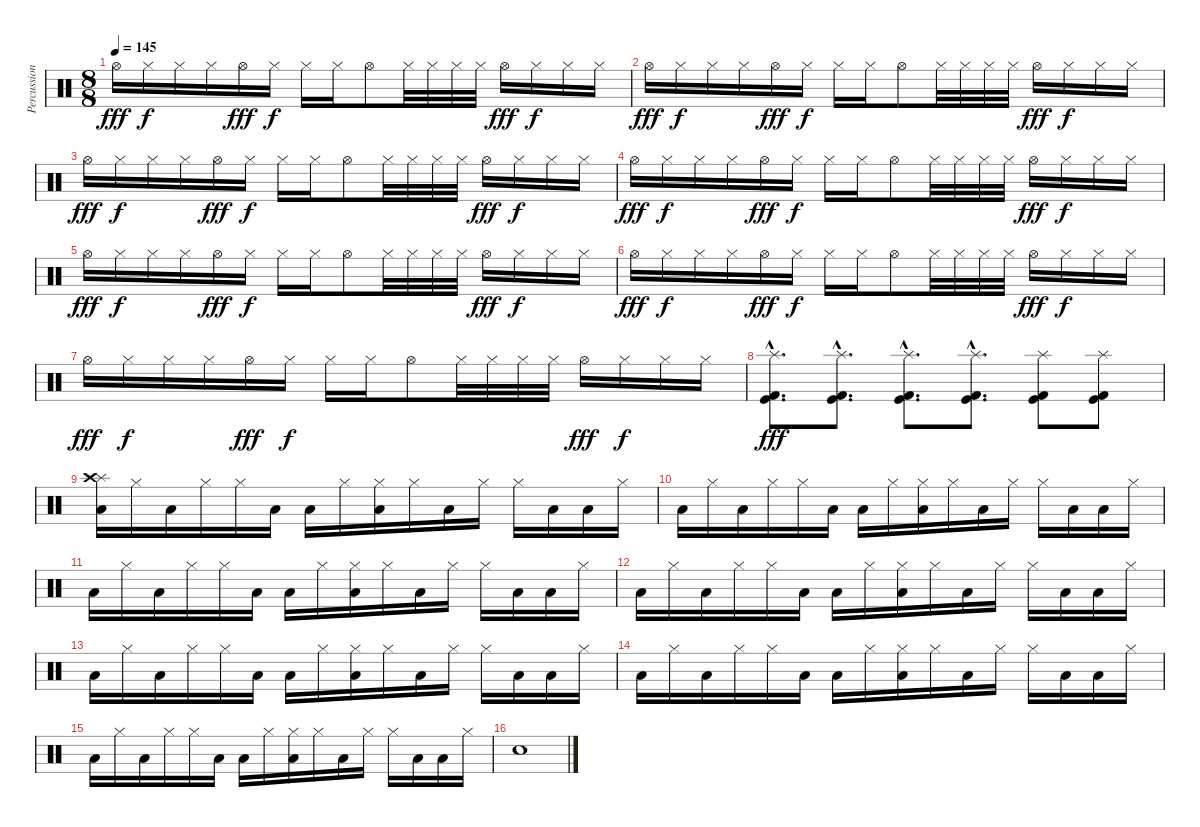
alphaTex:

\track ("Percussion" "Percussion") {instrument percussion}
\staff {score}
\articulation defaults
\ts (8 8)
\tempo 145
\clef neutral
\ks c "Hi-Hat (open)".16{dy fff} "Hi-Hat (closed)".16{dy f} "Hi-Hat (closed)".16 "Hi-Hat (closed)".16 "Hi-Hat (open)".16{dy fff} "Hi-Hat (closed)".16{dy f} "Hi-Hat (closed)".16 "Hi-Hat (closed)".16 "Hi-Hat (open)".8 "Hi-Hat (closed)".32 "Hi-Hat (closed)".32 "Hi-Hat (closed)".32 "Hi-Hat (closed)".32 "Hi-Hat (open)".16{dy fff} "Hi-Hat (closed)".16{dy f} "Hi-Hat (closed)".16 "Hi-Hat (closed)".16
|
"Hi-Hat (open)".16{dy fff} "Hi-Hat (closed)".16{dy f} "Hi-Hat (closed)".16 "Hi-Hat (closed)".16 "Hi-Hat (open)".16{dy fff} "Hi-Hat (closed)".16{dy f} "Hi-Hat (closed)".16 "Hi-Hat (closed)".16 "Hi-Hat (open)".8 "Hi-Hat (closed)".32 "Hi-Hat (closed)".32 "Hi-Hat (closed)".32 "Hi-Hat (closed)".32 "Hi-Hat (open)".16{dy fff} "Hi-Hat (closed)".16{dy f} "Hi-Hat (closed)".16 "Hi-Hat (closed)".16 |
"Hi-Hat (open)".16{dy fff} "Hi-Hat (closed)".16{dy f} "Hi-Hat (closed)".16 "Hi-Hat (closed)".16 "Hi-Hat (open)".16{dy fff} "Hi-Hat (closed)".16{dy f} "Hi-Hat (closed)".16 "Hi-Hat (closed)".16 "Hi-Hat (open)".8 "Hi-Hat (closed)".32 "Hi-Hat (closed)".32 "Hi-Hat (closed)".32 "Hi-Hat (closed)".32 "Hi-Hat (open)".16{dy fff} "Hi-Hat (closed)".16{dy f} "Hi-Hat (closed)".16 "Hi-Hat (closed)".16 |
"Hi-Hat (open)".16{dy fff} "Hi-Hat (closed)".16{dy f} "Hi-Hat (closed)".16 "Hi-Hat (closed)".16 "Hi-Hat (open)".16{dy fff} "Hi-Hat (closed)".16{dy f} "Hi-Hat (closed)".16 "Hi-Hat (closed)".16 "Hi-Hat (open)".8 "Hi-Hat (closed)".32 "Hi-Hat (closed)".32 "Hi-Hat (closed)".32 "Hi-Hat (closed)".32 "Hi-Hat (open)".16{dy fff} "Hi-Hat (closed)".16{dy f} "Hi-Hat (closed)".16 "Hi-Hat (closed)".16 |
"Hi-Hat (open)".16{dy fff} "Hi-Hat (closed)".16{dy f} "Hi-Hat (closed)".16 "Hi-Hat (closed)".16 "Hi-Hat (open)".16{dy fff} "Hi-Hat (closed)".16{dy f} "Hi-Hat (closed)".16 "Hi-Hat (closed)".16 "Hi-Hat (open)".8 "Hi-Hat (closed)".32 "Hi-Hat (closed)".32 "Hi-Hat (closed)".32 "Hi-Hat (closed)".32 "Hi-Hat (open)".16{dy fff} "Hi-Hat (closed)".16{dy f} "Hi-Hat (closed)".16 "Hi-Hat (closed)".16 |
"Hi-Hat (open)".16{dy fff} "Hi-Hat (closed)".16{dy f} "Hi-Hat (closed)".16 "Hi-Hat (closed)".16 "Hi-Hat (open)".16{dy fff} "Hi-Hat (closed)".16{dy f} "Hi-Hat (closed)".16 "Hi-Hat (closed)".16 "Hi-Hat (open)".8 "Hi-Hat (closed)".32 "Hi-Hat (closed)".32 "Hi-Hat (closed)".32 "Hi-Hat (closed)".32 "Hi-Hat (open)".16{dy fff} "Hi-Hat (closed)".16{dy f} "Hi-Hat (closed)".16 "Hi-Hat (closed)".16 |
"Hi-Hat (open)".16{dy fff} "Hi-Hat (closed)".16{dy f} "Hi-Hat (closed)".16 "Hi-Hat (closed)".16 "Hi-Hat (open)".16{dy fff} "Hi-Hat (closed)".16{dy f} "Hi-Hat (closed)".16 "Hi-Hat (closed)".16 "Hi-Hat (open)".8 "Hi-Hat (closed)".32 "Hi-Hat (closed)".32 "Hi-Hat (closed)".32 "Hi-Hat (closed)".32 "Hi-Hat (open)".16{dy fff} "Hi-Hat (closed)".16{dy f} "Hi-Hat (closed)".16 "Hi-Hat (closed)".16 |
("Splash (hit)"{hac} "Kick (hit)"{hac} "Kick (hit) 2"{hac}).8{d dy fff} ("Splash (hit)"{hac} "Kick (hit)"{hac} "Kick (hit) 2"{hac}).8{d} ("Splash (hit)"{hac} "Kick (hit)"{hac} "Kick (hit) 2"{hac}).8{d} ("Splash (hit)"{hac} "Kick (hit)"{hac} "Kick (hit) 2"{hac}).8{d} ("Splash (hit)" "Kick (hit)" "Kick (hit) 2").8 ("Splash (hit)" "Kick (hit)" "Kick (hit) 2").8 |
("Splash (hit)" "Crash high (hit)" "Low Floor Tom (hit)").16 "Hi-Hat (closed)".16 "Low Tom (hit)".16 "Hi-Hat (closed)".16 "Hi-Hat (closed)".16 "Low Floor Tom (hit)".16 "Low Tom (hit)".16 "Hi-Hat (closed)".16 ("Hi-Hat (closed)" "Low Floor Tom (hit)").16 "Hi-Hat (closed)".16 "Low Tom (hit)".16 "Hi-Hat (closed)".16 "Hi-Hat (closed)".16 "Low Floor Tom (hit)".16 "Low Tom (hit)".16 "Hi-Hat (closed)".16 |
"Low Floor Tom (hit)".16 "Hi-Hat (closed)".16 "Low Tom (hit)".16 "Hi-Hat (closed)".16 "Hi-Hat (closed)".16 "Low Floor Tom (hit)".16 "Low Tom (hit)".16 "Hi-Hat (closed)".16 ("Hi-Hat (closed)" "Low Floor Tom (hit)").16 "Hi-Hat (closed)".16 "Low Tom (hit)".16 "Hi-Hat (closed)".16 "Hi-Hat (closed)".16 "Low Tom (hit)".16 "Low Tom (hit)".16 "Hi-Hat (closed)".16 |
"Low Floor Tom (hit)".16 "Hi-Hat (closed)".16 "Low Tom (hit)".16 "Hi-Hat (closed)".16 "Hi-Hat (closed)".16 "Low Floor Tom (hit)".16 "Low Tom (hit)".16 "Hi-Hat (closed)".16 ("Hi-Hat (closed)" "Low Floor Tom (hit)").16 "Hi-Hat (closed)".16 "Low Tom (hit)".16 "Hi-Hat (closed)".16 "Hi-Hat (closed)".16 "Low Floor Tom (hit)".16 "Low Tom (hit)".16 "Hi-Hat (closed)".16 |
"Low Floor Tom (hit)".16 "Hi-Hat (closed)".16 "Low Tom (hit)".16 "Hi-Hat (closed)".16 "Hi-Hat (closed)".16 "Low Floor Tom (hit)".16 "Low Tom (hit)".16 "Hi-Hat (closed)".16 ("Hi-Hat (closed)" "Low Floor Tom (hit)").16 "Hi-Hat (closed)".16 "Low Tom (hit)".16 "Hi-Hat (closed)".16 "Hi-Hat (closed)".16 "Low Tom (hit)".16 "Low Tom (hit)".16 "Hi-Hat (closed)".16 |
"Low Floor Tom (hit)".16 "Hi-Hat (closed)".16 "Low Tom (hit)".16 "Hi-Hat (closed)".16 "Hi-Hat (closed)".16 "Low Floor Tom (hit)".16 "Low Tom (hit)".16 "Hi-Hat (closed)".16 ("Hi-Hat (closed)" "Low Floor Tom (hit)").16 "Hi-Hat (closed)".16 "Low Tom (hit)".16 "Hi-Hat (closed)".16 "Hi-Hat (closed)".16 "Low Floor Tom (hit)".16 "Low Tom (hit)".16 "Hi-Hat (closed)".16 |
"Low Floor Tom (hit)".16 "Hi-Hat (closed)".16 "Low Tom (hit)".16 "Hi-Hat (closed)".16 "Hi-Hat (closed)".16 "Low Floor Tom (hit)".16 "Low Tom (hit)".16 "Hi-Hat (closed)".16 ("Hi-Hat (closed)" "Low Floor Tom (hit)").16 "Hi-Hat (closed)".16 "Low Tom (hit)".16 "Hi-Hat (closed)".16 "Hi-Hat (closed)".16 "Low Tom (hit)".16 "Low Tom (hit)".16 "Hi-Hat (closed)".16 |
"Low Floor Tom (hit)".16 "Hi-Hat (closed)".16 "Low Tom (hit)".16 "Hi-Hat (closed)".16 "Hi-Hat (closed)".16 "Low Floor Tom (hit)".16 "Low Tom (hit)".16 "Hi-Hat (closed)".16 ("Hi-Hat (closed)" "Low Floor Tom (hit)").16 "Hi-Hat (closed)".16 "Low Tom (hit)".16 "Hi-Hat (closed)".16 "Hi-Hat (closed)".16 "Low Floor Tom (hit)".16 "Low Tom (hit)".16 "Hi-Hat (closed)".16 |
"Electric Snare (hit)".1
